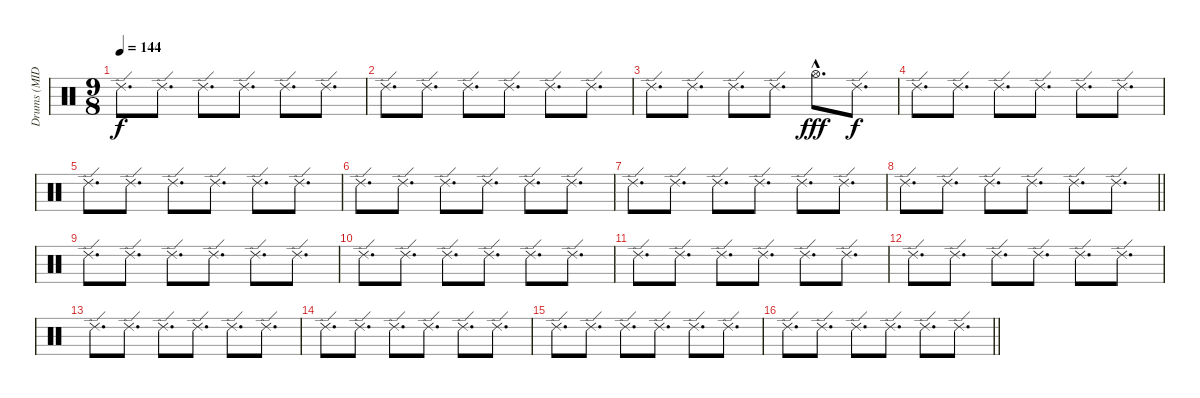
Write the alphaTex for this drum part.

\track ("Drums (MIDI!)" "Drums (MID") {instrument percussion}
\staff {score}
\articulation defaults
\ts (9 8)
\tempo 144
\clef neutral
\ks c "Ride (edge) 2".8{d dy f} "Ride (edge) 2".8{d} "Ride (edge) 2".8{d} "Ride (edge) 2".8{d} "Ride (edge) 2".8{d} "Ride (edge) 2".8{d}
|
"Ride (edge) 2".8{d} "Ride (edge) 2".8{d} "Ride (edge) 2".8{d} "Ride (edge) 2".8{d} "Ride (edge) 2".8{d} "Ride (edge) 2".8{d} |
"Ride (edge) 2".8{d} "Ride (edge) 2".8{d} "Ride (edge) 2".8{d} "Ride (edge) 2".8{d} "Hi-Hat (open)"{hac}.8{d dy fff} "Ride (edge) 2".8{d dy f} |
"Ride (edge) 2".8{d} "Ride (edge) 2".8{d} "Ride (edge) 2".8{d} "Ride (edge) 2".8{d} "Ride (edge) 2".8{d} "Ride (edge) 2".8{d} |
"Ride (edge) 2".8{d} "Ride (edge) 2".8{d} "Ride (edge) 2".8{d} "Ride (edge) 2".8{d} "Ride (edge) 2".8{d} "Ride (edge) 2".8{d} |
"Ride (edge) 2".8{d} "Ride (edge) 2".8{d} "Ride (edge) 2".8{d} "Ride (edge) 2".8{d} "Ride (edge) 2".8{d} "Ride (edge) 2".8{d} |
"Ride (edge) 2".8{d} "Ride (edge) 2".8{d} "Ride (edge) 2".8{d} "Ride (edge) 2".8{d} "Ride (edge) 2".8{d} "Ride (edge) 2".8{d} |
\barLineRight lightlight "Ride (edge) 2".8{d} "Ride (edge) 2".8{d} "Ride (edge) 2".8{d} "Ride (edge) 2".8{d} "Ride (edge) 2".8{d} "Ride (edge) 2".8{d}
|
"Ride (edge) 2".8{d} "Ride (edge) 2".8{d} "Ride (edge) 2".8{d} "Ride (edge) 2".8{d} "Ride (edge) 2".8{d} "Ride (edge) 2".8{d} |
"Ride (edge) 2".8{d} "Ride (edge) 2".8{d} "Ride (edge) 2".8{d} "Ride (edge) 2".8{d} "Ride (edge) 2".8{d} "Ride (edge) 2".8{d} |
"Ride (edge) 2".8{d} "Ride (edge) 2".8{d} "Ride (edge) 2".8{d} "Ride (edge) 2".8{d} "Ride (edge) 2".8{d} "Ride (edge) 2".8{d} |
"Ride (edge) 2".8{d} "Ride (edge) 2".8{d} "Ride (edge) 2".8{d} "Ride (edge) 2".8{d} "Ride (edge) 2".8{d} "Ride (edge) 2".8{d} |
"Ride (edge) 2".8{d} "Ride (edge) 2".8{d} "Ride (edge) 2".8{d} "Ride (edge) 2".8{d} "Ride (edge) 2".8{d} "Ride (edge) 2".8{d} |
"Ride (edge) 2".8{d} "Ride (edge) 2".8{d} "Ride (edge) 2".8{d} "Ride (edge) 2".8{d} "Ride (edge) 2".8{d} "Ride (edge) 2".8{d} |
"Ride (edge) 2".8{d} "Ride (edge) 2".8{d} "Ride (edge) 2".8{d} "Ride (edge) 2".8{d} "Ride (edge) 2".8{d} "Ride (edge) 2".8{d} |
\barLineRight lightlight "Ride (edge) 2".8{d} "Ride (edge) 2".8{d} "Ride (edge) 2".8{d} "Ride (edge) 2".8{d} "Ride (edge) 2".8{d} "Ride (edge) 2".8{d}
